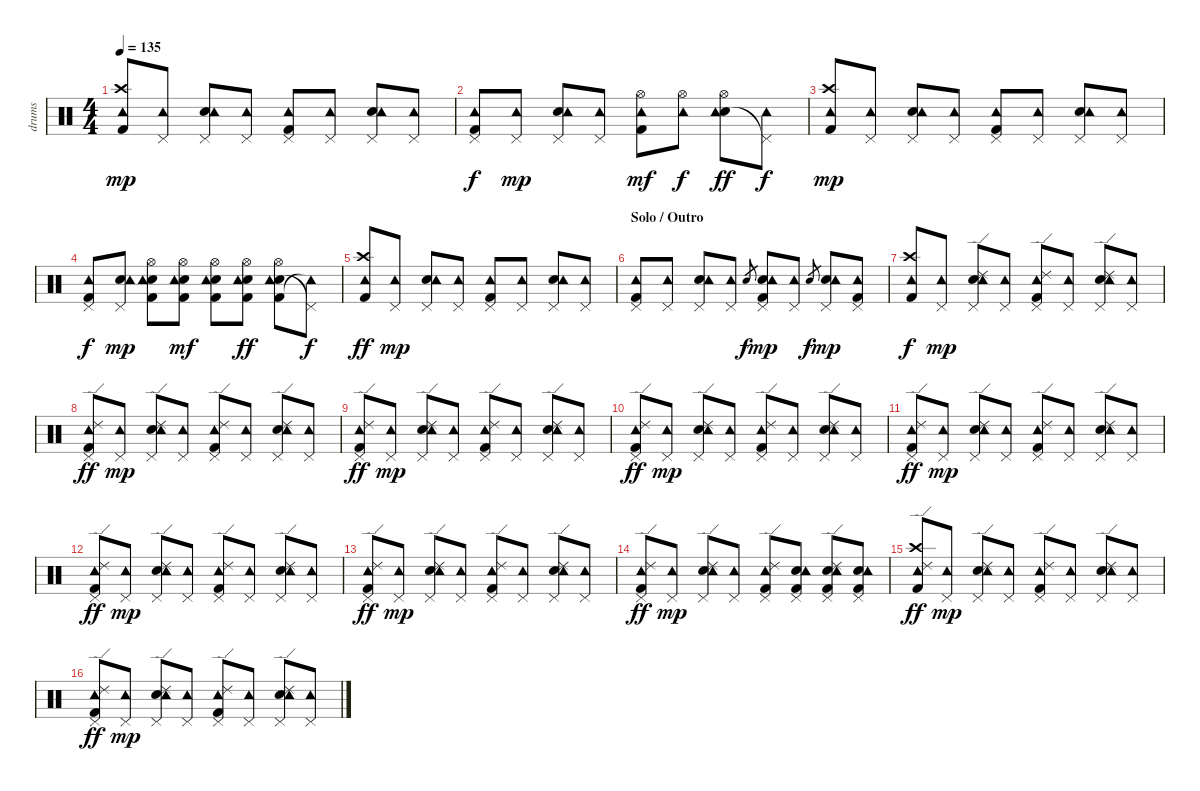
\track ("drums" "drums") {instrument percussion}
\staff {score}
\articulation defaults
\ts (4 4)
\tempo 135
\clef neutral
\ks c
("Kick (hit) 2" "Crash high (hit)" "Tambourine (hit)").8{dy mp} ("Pedal Hi-Hat (hit)" "Tambourine (hit)").8 ("Electric Snare (hit)" "Pedal Hi-Hat (hit)" "Tambourine (hit)").8 ("Pedal Hi-Hat (hit)" "Tambourine (hit)").8 ("Kick (hit) 2" "Pedal Hi-Hat (hit)" "Tambourine (hit)").8 ("Pedal Hi-Hat (hit)" "Tambourine (hit)").8 ("Electric Snare (hit)" "Pedal Hi-Hat (hit)" "Tambourine (hit)").8 ("Pedal Hi-Hat (hit)" "Tambourine (hit)").8 |
("Kick (hit) 2" "Pedal Hi-Hat (hit)" "Tambourine (hit)").8{dy f} ("Pedal Hi-Hat (hit)" "Tambourine (hit)").8{dy mp} ("Electric Snare (hit)" "Pedal Hi-Hat (hit)" "Tambourine (hit)").8 ("Pedal Hi-Hat (hit)" "Tambourine (hit)").8 ("Kick (hit) 2" "Hi-Hat (open)" "Tambourine (hit)").8{dy mf} ("Hi-Hat (open)" "Tambourine (hit)").8{dy f} ("Electric Snare (hit)" "Hi-Hat (open)" "Tambourine (hit)").8{dy ff} ("Pedal Hi-Hat (hit)"{t} "Tambourine (hit)").8{dy f} |
("Kick (hit) 2" "Crash high (hit)" "Tambourine (hit)").8{dy mp} ("Pedal Hi-Hat (hit)" "Tambourine (hit)").8 ("Electric Snare (hit)" "Pedal Hi-Hat (hit)" "Tambourine (hit)").8 ("Pedal Hi-Hat (hit)" "Tambourine (hit)").8 ("Kick (hit) 2" "Pedal Hi-Hat (hit)" "Tambourine (hit)").8 ("Pedal Hi-Hat (hit)" "Tambourine (hit)").8 ("Electric Snare (hit)" "Pedal Hi-Hat (hit)" "Tambourine (hit)").8 ("Pedal Hi-Hat (hit)" "Tambourine (hit)").8 |
("Kick (hit) 2" "Pedal Hi-Hat (hit)" "Tambourine (hit)").8{dy f} ("Electric Snare (hit)" "Pedal Hi-Hat (hit)" "Tambourine (hit)").8{dy mp} ("Electric Snare (hit)" "Kick (hit) 2" "Hi-Hat (open)" "Tambourine (hit)").8 ("Electric Snare (hit)" "Kick (hit) 2" "Hi-Hat (open)" "Tambourine (hit)").8{dy mf} ("Electric Snare (hit)" "Kick (hit) 2" "Hi-Hat (open)" "Tambourine (hit)").8 ("Electric Snare (hit)" "Kick (hit) 2" "Hi-Hat (open)" "Tambourine (hit)").8{dy ff} ("Electric Snare (hit)" "Kick (hit) 2" "Hi-Hat (open)" "Tambourine (hit)").8 ("Pedal Hi-Hat (hit)"{t} "Tambourine (hit)"{t}).8{dy f} |
("Kick (hit) 2" "Crash high (hit)" "Tambourine (hit)").8{dy ff} ("Pedal Hi-Hat (hit)" "Tambourine (hit)").8{dy mp} ("Electric Snare (hit)" "Pedal Hi-Hat (hit)" "Tambourine (hit)").8 ("Pedal Hi-Hat (hit)" "Tambourine (hit)").8 ("Kick (hit) 2" "Pedal Hi-Hat (hit)" "Tambourine (hit)").8 ("Pedal Hi-Hat (hit)" "Tambourine (hit)").8 ("Electric Snare (hit)" "Pedal Hi-Hat (hit)" "Tambourine (hit)").8 ("Pedal Hi-Hat (hit)" "Tambourine (hit)").8 |
\section ("" "Solo / Outro")
("Kick (hit) 2" "Pedal Hi-Hat (hit)" "Tambourine (hit)").8 ("Pedal Hi-Hat (hit)" "Tambourine (hit)").8 ("Electric Snare (hit)" "Pedal Hi-Hat (hit)" "Tambourine (hit)").8 ("Pedal Hi-Hat (hit)" "Tambourine (hit)").8 "Electric Snare (hit)".8{gr dy f} ("Electric Snare (hit)" "Kick (hit) 2" "Pedal Hi-Hat (hit)" "Tambourine (hit)").8{dy mp} ("Pedal Hi-Hat (hit)" "Tambourine (hit)").8 "Electric Snare (hit)".8{gr dy f} ("Electric Snare (hit)" "Pedal Hi-Hat (hit)" "Tambourine (hit)").8{dy mp} ("Kick (hit) 2" "Pedal Hi-Hat (hit)" "Tambourine (hit)").8 |
("Kick (hit) 2" "Crash high (hit)" "Tambourine (hit)").8{dy f} ("Pedal Hi-Hat (hit)" "Tambourine (hit)").8{dy mp} ("Electric Snare (hit)" "Ride (edge) 2" "Pedal Hi-Hat (hit)" "Tambourine (hit)").8 ("Pedal Hi-Hat (hit)" "Tambourine (hit)").8 ("Ride (edge) 2" "Kick (hit) 2" "Pedal Hi-Hat (hit)" "Tambourine (hit)").8 ("Pedal Hi-Hat (hit)" "Tambourine (hit)").8 ("Electric Snare (hit)" "Ride (edge) 2" "Pedal Hi-Hat (hit)" "Tambourine (hit)").8 ("Pedal Hi-Hat (hit)" "Tambourine (hit)").8 |
("Ride (edge) 2" "Kick (hit) 2" "Pedal Hi-Hat (hit)" "Tambourine (hit)").8{dy ff} ("Pedal Hi-Hat (hit)" "Tambourine (hit)").8{dy mp} ("Electric Snare (hit)" "Ride (edge) 2" "Pedal Hi-Hat (hit)" "Tambourine (hit)").8 ("Pedal Hi-Hat (hit)" "Tambourine (hit)").8 ("Ride (edge) 2" "Kick (hit) 2" "Pedal Hi-Hat (hit)" "Tambourine (hit)").8 ("Pedal Hi-Hat (hit)" "Tambourine (hit)").8 ("Electric Snare (hit)" "Ride (edge) 2" "Pedal Hi-Hat (hit)" "Tambourine (hit)").8 ("Pedal Hi-Hat (hit)" "Tambourine (hit)").8 |
("Ride (edge) 2" "Kick (hit) 2" "Pedal Hi-Hat (hit)" "Tambourine (hit)").8{dy ff} ("Pedal Hi-Hat (hit)" "Tambourine (hit)").8{dy mp} ("Electric Snare (hit)" "Ride (edge) 2" "Pedal Hi-Hat (hit)" "Tambourine (hit)").8 ("Pedal Hi-Hat (hit)" "Tambourine (hit)").8 ("Ride (edge) 2" "Kick (hit) 2" "Pedal Hi-Hat (hit)" "Tambourine (hit)").8 ("Pedal Hi-Hat (hit)" "Tambourine (hit)").8 ("Electric Snare (hit)" "Ride (edge) 2" "Pedal Hi-Hat (hit)" "Tambourine (hit)").8 ("Pedal Hi-Hat (hit)" "Tambourine (hit)").8 |
("Ride (edge) 2" "Kick (hit) 2" "Pedal Hi-Hat (hit)" "Tambourine (hit)").8{dy ff} ("Pedal Hi-Hat (hit)" "Tambourine (hit)").8{dy mp} ("Electric Snare (hit)" "Ride (edge) 2" "Pedal Hi-Hat (hit)" "Tambourine (hit)").8 ("Pedal Hi-Hat (hit)" "Tambourine (hit)").8 ("Ride (edge) 2" "Kick (hit) 2" "Pedal Hi-Hat (hit)" "Tambourine (hit)").8 ("Pedal Hi-Hat (hit)" "Tambourine (hit)").8 ("Electric Snare (hit)" "Ride (edge) 2" "Pedal Hi-Hat (hit)" "Tambourine (hit)").8 ("Pedal Hi-Hat (hit)" "Tambourine (hit)").8 |
("Ride (edge) 2" "Kick (hit) 2" "Pedal Hi-Hat (hit)" "Tambourine (hit)").8{dy ff} ("Pedal Hi-Hat (hit)" "Tambourine (hit)").8{dy mp} ("Electric Snare (hit)" "Ride (edge) 2" "Pedal Hi-Hat (hit)" "Tambourine (hit)").8 ("Pedal Hi-Hat (hit)" "Tambourine (hit)").8 ("Ride (edge) 2" "Kick (hit) 2" "Pedal Hi-Hat (hit)" "Tambourine (hit)").8 ("Pedal Hi-Hat (hit)" "Tambourine (hit)").8 ("Electric Snare (hit)" "Ride (edge) 2" "Pedal Hi-Hat (hit)" "Tambourine (hit)").8 ("Pedal Hi-Hat (hit)" "Tambourine (hit)").8 |
("Ride (edge) 2" "Kick (hit) 2" "Pedal Hi-Hat (hit)" "Tambourine (hit)").8{dy ff} ("Pedal Hi-Hat (hit)" "Tambourine (hit)").8{dy mp} ("Electric Snare (hit)" "Ride (edge) 2" "Pedal Hi-Hat (hit)" "Tambourine (hit)").8 ("Pedal Hi-Hat (hit)" "Tambourine (hit)").8 ("Ride (edge) 2" "Kick (hit) 2" "Pedal Hi-Hat (hit)" "Tambourine (hit)").8 ("Pedal Hi-Hat (hit)" "Tambourine (hit)").8 ("Electric Snare (hit)" "Ride (edge) 2" "Pedal Hi-Hat (hit)" "Tambourine (hit)").8 ("Pedal Hi-Hat (hit)" "Tambourine (hit)").8 |
("Ride (edge) 2" "Kick (hit) 2" "Pedal Hi-Hat (hit)" "Tambourine (hit)").8{dy ff} ("Pedal Hi-Hat (hit)" "Tambourine (hit)").8{dy mp} ("Electric Snare (hit)" "Ride (edge) 2" "Pedal Hi-Hat (hit)" "Tambourine (hit)").8 ("Pedal Hi-Hat (hit)" "Tambourine (hit)").8 ("Ride (edge) 2" "Kick (hit) 2" "Pedal Hi-Hat (hit)" "Tambourine (hit)").8 ("Pedal Hi-Hat (hit)" "Tambourine (hit)").8 ("Electric Snare (hit)" "Ride (edge) 2" "Pedal Hi-Hat (hit)" "Tambourine (hit)").8 ("Pedal Hi-Hat (hit)" "Tambourine (hit)").8 |
("Ride (edge) 2" "Kick (hit) 2" "Pedal Hi-Hat (hit)" "Tambourine (hit)").8{dy ff} ("Pedal Hi-Hat (hit)" "Tambourine (hit)").8{dy mp} ("Electric Snare (hit)" "Ride (edge) 2" "Pedal Hi-Hat (hit)" "Tambourine (hit)").8 ("Pedal Hi-Hat (hit)" "Tambourine (hit)").8 ("Ride (edge) 2" "Kick (hit) 2" "Pedal Hi-Hat (hit)" "Tambourine (hit)").8 ("Electric Snare (hit)" "Kick (hit) 2" "Pedal Hi-Hat (hit)" "Tambourine (hit)").8 ("Electric Snare (hit)" "Ride (edge) 2" "Kick (hit) 2" "Pedal Hi-Hat (hit)" "Tambourine (hit)").8 ("Electric Snare (hit)" "Kick (hit) 2" "Pedal Hi-Hat (hit)" "Tambourine (hit)").8 |
("Ride (edge) 2" "Kick (hit) 2" "Crash high (hit)" "Tambourine (hit)").8{dy ff} ("Pedal Hi-Hat (hit)" "Tambourine (hit)").8{dy mp} ("Electric Snare (hit)" "Ride (edge) 2" "Pedal Hi-Hat (hit)" "Tambourine (hit)").8 ("Pedal Hi-Hat (hit)" "Tambourine (hit)").8 ("Ride (edge) 2" "Kick (hit) 2" "Pedal Hi-Hat (hit)" "Tambourine (hit)").8 ("Pedal Hi-Hat (hit)" "Tambourine (hit)").8 ("Electric Snare (hit)" "Ride (edge) 2" "Pedal Hi-Hat (hit)" "Tambourine (hit)").8 ("Pedal Hi-Hat (hit)" "Tambourine (hit)").8 |
("Ride (edge) 2" "Kick (hit) 2" "Pedal Hi-Hat (hit)" "Tambourine (hit)").8{dy ff} ("Pedal Hi-Hat (hit)" "Tambourine (hit)").8{dy mp} ("Electric Snare (hit)" "Ride (edge) 2" "Pedal Hi-Hat (hit)" "Tambourine (hit)").8 ("Pedal Hi-Hat (hit)" "Tambourine (hit)").8 ("Ride (edge) 2" "Kick (hit) 2" "Pedal Hi-Hat (hit)" "Tambourine (hit)").8 ("Pedal Hi-Hat (hit)" "Tambourine (hit)").8 ("Electric Snare (hit)" "Ride (edge) 2" "Pedal Hi-Hat (hit)" "Tambourine (hit)").8 ("Pedal Hi-Hat (hit)" "Tambourine (hit)").8
